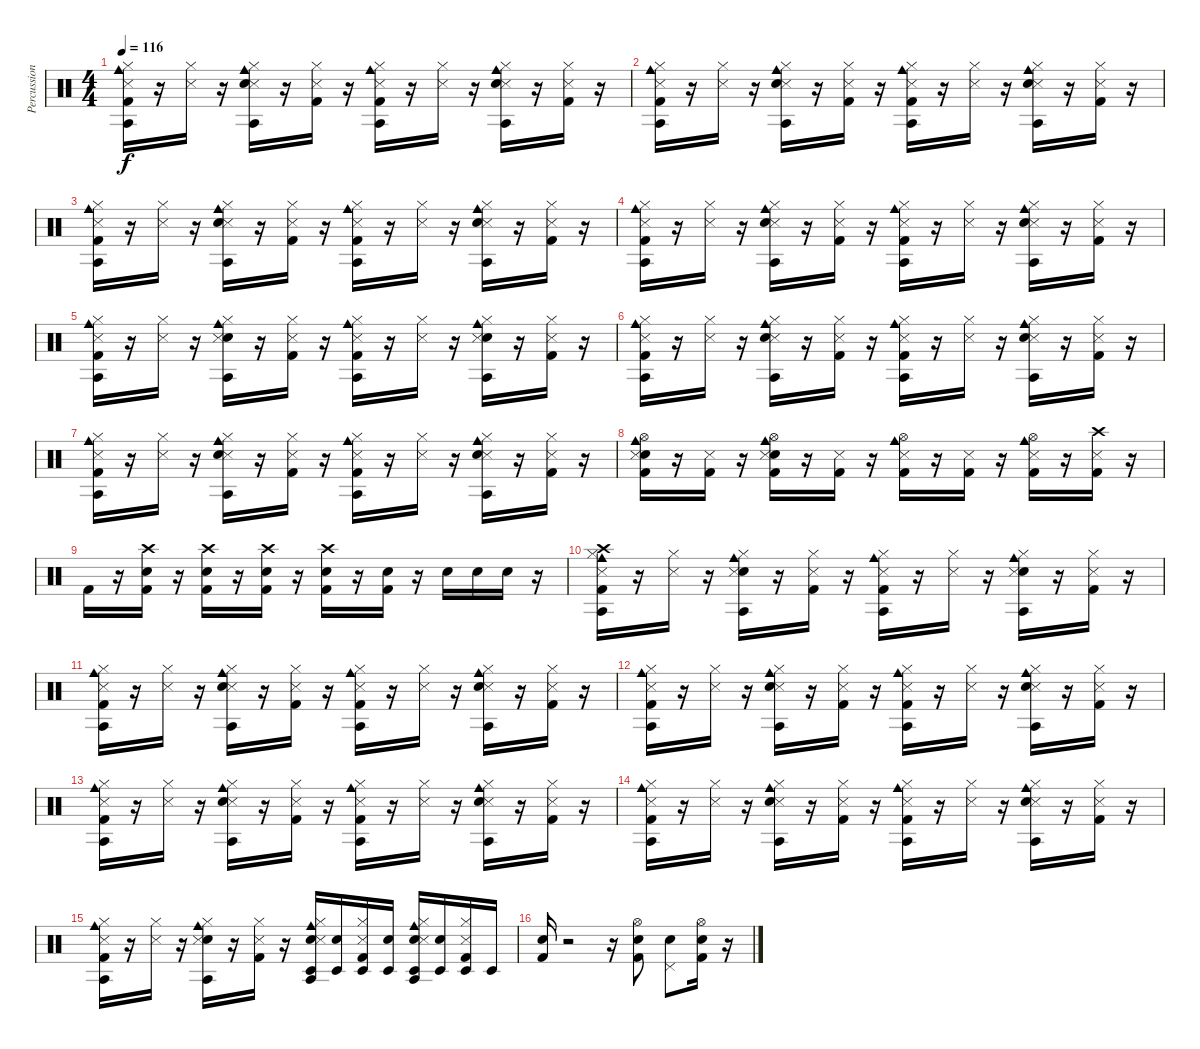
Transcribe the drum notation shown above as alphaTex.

\track ("Percussion" "Percussion") {instrument percussion}
\staff {score}
\articulation defaults
\ts (4 4)
\tempo 116
\clef neutral
\ks c
("Cowbell medium (hit)" "Snare (side stick) 3" "Hi-Hat (closed)" "Agogo tow (hit)" "Kick (hit) 2").16{dy f} r.16 ("Snare (side stick) 3" "Hi-Hat (closed)").16 r.16 ("Cowbell medium (hit)" "Snare (side stick) 3" "Hi-Hat (closed)" "Agogo tow (hit)" "Snare (hit) 2").16 r.16 ("Snare (side stick) 3" "Hi-Hat (closed)" "Kick (hit) 2").16 r.16 ("Cowbell medium (hit)" "Snare (side stick) 3" "Hi-Hat (closed)" "Agogo tow (hit)" "Kick (hit) 2").16 r.16 ("Snare (side stick) 3" "Hi-Hat (closed)").16 r.16 ("Cowbell medium (hit)" "Snare (side stick) 3" "Hi-Hat (closed)" "Agogo tow (hit)" "Snare (hit) 2").16 r.16 ("Snare (side stick) 3" "Hi-Hat (closed)" "Kick (hit) 2").16 r.16 |
("Snare (side stick) 3" "Agogo tow (hit)" "Kick (hit) 2" "Cowbell medium (hit)" "Hi-Hat (closed)").16 r.16 ("Snare (side stick) 3" "Hi-Hat (closed)").16 r.16 ("Snare (side stick) 3" "Agogo tow (hit)" "Snare (hit) 2" "Cowbell medium (hit)" "Hi-Hat (closed)").16 r.16 ("Snare (side stick) 3" "Kick (hit) 2" "Hi-Hat (closed)").16 r.16 ("Snare (side stick) 3" "Agogo tow (hit)" "Kick (hit) 2" "Cowbell medium (hit)" "Hi-Hat (closed)").16 r.16 ("Snare (side stick) 3" "Hi-Hat (closed)").16 r.16 ("Snare (side stick) 3" "Agogo tow (hit)" "Snare (hit) 2" "Cowbell medium (hit)" "Hi-Hat (closed)").16 r.16 ("Snare (side stick) 3" "Kick (hit) 2" "Hi-Hat (closed)").16 r.16 |
("Cowbell medium (hit)" "Agogo tow (hit)" "Snare (side stick) 3" "Kick (hit) 2" "Hi-Hat (closed)").16 r.16 ("Snare (side stick) 3" "Hi-Hat (closed)").16 r.16 ("Cowbell medium (hit)" "Agogo tow (hit)" "Snare (side stick) 3" "Snare (hit) 2" "Hi-Hat (closed)").16 r.16 ("Snare (side stick) 3" "Kick (hit) 2" "Hi-Hat (closed)").16 r.16 ("Cowbell medium (hit)" "Agogo tow (hit)" "Snare (side stick) 3" "Kick (hit) 2" "Hi-Hat (closed)").16 r.16 ("Snare (side stick) 3" "Hi-Hat (closed)").16 r.16 ("Cowbell medium (hit)" "Agogo tow (hit)" "Snare (side stick) 3" "Snare (hit) 2" "Hi-Hat (closed)").16 r.16 ("Snare (side stick) 3" "Kick (hit) 2" "Hi-Hat (closed)").16 r.16 |
("Hi-Hat (closed)" "Cowbell medium (hit)" "Snare (side stick) 3" "Agogo tow (hit)" "Kick (hit) 2").16 r.16 ("Hi-Hat (closed)" "Snare (side stick) 3").16 r.16 ("Hi-Hat (closed)" "Cowbell medium (hit)" "Snare (side stick) 3" "Agogo tow (hit)" "Snare (hit) 2").16 r.16 ("Hi-Hat (closed)" "Snare (side stick) 3" "Kick (hit) 2").16 r.16 ("Hi-Hat (closed)" "Cowbell medium (hit)" "Snare (side stick) 3" "Agogo tow (hit)" "Kick (hit) 2").16 r.16 ("Hi-Hat (closed)" "Snare (side stick) 3").16 r.16 ("Hi-Hat (closed)" "Cowbell medium (hit)" "Snare (side stick) 3" "Agogo tow (hit)" "Snare (hit) 2").16 r.16 ("Hi-Hat (closed)" "Snare (side stick) 3" "Kick (hit) 2").16 r.16 |
("Kick (hit) 2" "Agogo tow (hit)" "Cowbell medium (hit)" "Snare (side stick) 3" "Hi-Hat (closed)").16 r.16 ("Snare (side stick) 3" "Hi-Hat (closed)").16 r.16 ("Snare (hit) 2" "Agogo tow (hit)" "Cowbell medium (hit)" "Snare (side stick) 3" "Hi-Hat (closed)").16 r.16 ("Kick (hit) 2" "Snare (side stick) 3" "Hi-Hat (closed)").16 r.16 ("Kick (hit) 2" "Agogo tow (hit)" "Cowbell medium (hit)" "Snare (side stick) 3" "Hi-Hat (closed)").16 r.16 ("Snare (side stick) 3" "Hi-Hat (closed)").16 r.16 ("Snare (hit) 2" "Agogo tow (hit)" "Cowbell medium (hit)" "Snare (side stick) 3" "Hi-Hat (closed)").16 r.16 ("Kick (hit) 2" "Snare (side stick) 3" "Hi-Hat (closed)").16 r.16 |
("Agogo tow (hit)" "Snare (side stick) 3" "Cowbell medium (hit)" "Hi-Hat (closed)" "Kick (hit) 2").16 r.16 ("Snare (side stick) 3" "Hi-Hat (closed)").16 r.16 ("Agogo tow (hit)" "Snare (side stick) 3" "Cowbell medium (hit)" "Hi-Hat (closed)" "Snare (hit) 2").16 r.16 ("Snare (side stick) 3" "Hi-Hat (closed)" "Kick (hit) 2").16 r.16 ("Agogo tow (hit)" "Snare (side stick) 3" "Cowbell medium (hit)" "Hi-Hat (closed)" "Kick (hit) 2").16 r.16 ("Snare (side stick) 3" "Hi-Hat (closed)").16 r.16 ("Agogo tow (hit)" "Snare (side stick) 3" "Cowbell medium (hit)" "Hi-Hat (closed)" "Snare (hit) 2").16 r.16 ("Snare (side stick) 3" "Hi-Hat (closed)" "Kick (hit) 2").16 r.16 |
("Cowbell medium (hit)" "Snare (side stick) 3" "Agogo tow (hit)" "Kick (hit) 2" "Hi-Hat (closed)").16 r.16 ("Snare (side stick) 3" "Hi-Hat (closed)").16 r.16 ("Cowbell medium (hit)" "Snare (side stick) 3" "Agogo tow (hit)" "Snare (hit) 2" "Hi-Hat (closed)").16 r.16 ("Snare (side stick) 3" "Kick (hit) 2" "Hi-Hat (closed)").16 r.16 ("Cowbell medium (hit)" "Snare (side stick) 3" "Agogo tow (hit)" "Kick (hit) 2" "Hi-Hat (closed)").16 r.16 ("Snare (side stick) 3" "Hi-Hat (closed)").16 r.16 ("Cowbell medium (hit)" "Snare (side stick) 3" "Agogo tow (hit)" "Snare (hit) 2" "Hi-Hat (closed)").16 r.16 ("Snare (side stick) 3" "Kick (hit) 2" "Hi-Hat (closed)").16 r.16 |
("Electric Snare (hit)" "Snare (side stick) 3" "Cowbell medium (hit)" "Hi-Hat (open)" "Kick (hit) 2").16 r.16 ("Snare (side stick) 3" "Kick (hit) 2").16 r.16 ("Electric Snare (hit)" "Snare (side stick) 3" "Cowbell medium (hit)" "Hi-Hat (open)" "Kick (hit) 2").16 r.16 ("Snare (side stick) 3" "Kick (hit) 2").16 r.16 ("Snare (side stick) 3" "Cowbell medium (hit)" "Hi-Hat (open)" "Kick (hit) 2").16 r.16 ("Snare (side stick) 3" "Kick (hit) 2").16 r.16 ("Snare (side stick) 3" "Cowbell medium (hit)" "Hi-Hat (open)" "Kick (hit) 2").16 r.16 ("Crash high (hit)" "Snare (side stick) 3" "Kick (hit) 2").16 r.16 |
"Kick (hit) 2".16 r.16 ("Crash high (hit)" "Snare (hit) 2" "Kick (hit) 2").16 r.16 ("Snare (hit) 2" "Crash high (hit)" "Kick (hit) 2").16 r.16 ("Snare (hit) 2" "Kick (hit) 2" "Crash high (hit)").16 r.16 ("Snare (hit) 2" "Crash high (hit)" "Kick (hit) 2").16 r.16 ("Snare (hit) 2" "Kick (hit) 2").16 r.16 "Snare (hit) 2".16 "Snare (hit) 2".16 "Snare (hit) 2".16 r.16 |
("Kick (hit) 2" "Hi-Hat (closed)" "Agogo tow (hit)" "Crash high (hit)" "Cowbell medium (hit)" "Snare (side stick) 3").16 r.16 ("Hi-Hat (closed)" "Snare (side stick) 3").16 r.16 ("Snare (hit) 2" "Hi-Hat (closed)" "Agogo tow (hit)" "Cowbell medium (hit)" "Snare (side stick) 3").16 r.16 ("Kick (hit) 2" "Hi-Hat (closed)" "Snare (side stick) 3").16 r.16 ("Kick (hit) 2" "Hi-Hat (closed)" "Agogo tow (hit)" "Cowbell medium (hit)" "Snare (side stick) 3").16 r.16 ("Hi-Hat (closed)" "Snare (side stick) 3").16 r.16 ("Snare (hit) 2" "Hi-Hat (closed)" "Agogo tow (hit)" "Cowbell medium (hit)" "Snare (side stick) 3").16 r.16 ("Kick (hit) 2" "Hi-Hat (closed)" "Snare (side stick) 3").16 r.16 |
("Cowbell medium (hit)" "Snare (side stick) 3" "Hi-Hat (closed)" "Agogo tow (hit)" "Kick (hit) 2").16 r.16 ("Snare (side stick) 3" "Hi-Hat (closed)").16 r.16 ("Cowbell medium (hit)" "Snare (side stick) 3" "Hi-Hat (closed)" "Agogo tow (hit)" "Snare (hit) 2").16 r.16 ("Snare (side stick) 3" "Hi-Hat (closed)" "Kick (hit) 2").16 r.16 ("Cowbell medium (hit)" "Snare (side stick) 3" "Hi-Hat (closed)" "Agogo tow (hit)" "Kick (hit) 2").16 r.16 ("Snare (side stick) 3" "Hi-Hat (closed)").16 r.16 ("Cowbell medium (hit)" "Snare (side stick) 3" "Hi-Hat (closed)" "Agogo tow (hit)" "Snare (hit) 2").16 r.16 ("Snare (side stick) 3" "Hi-Hat (closed)" "Kick (hit) 2").16 r.16 |
("Snare (side stick) 3" "Agogo tow (hit)" "Kick (hit) 2" "Cowbell medium (hit)" "Hi-Hat (closed)").16 r.16 ("Snare (side stick) 3" "Hi-Hat (closed)").16 r.16 ("Snare (side stick) 3" "Agogo tow (hit)" "Snare (hit) 2" "Cowbell medium (hit)" "Hi-Hat (closed)").16 r.16 ("Snare (side stick) 3" "Kick (hit) 2" "Hi-Hat (closed)").16 r.16 ("Snare (side stick) 3" "Agogo tow (hit)" "Kick (hit) 2" "Cowbell medium (hit)" "Hi-Hat (closed)").16 r.16 ("Snare (side stick) 3" "Hi-Hat (closed)").16 r.16 ("Snare (side stick) 3" "Agogo tow (hit)" "Snare (hit) 2" "Cowbell medium (hit)" "Hi-Hat (closed)").16 r.16 ("Snare (side stick) 3" "Kick (hit) 2" "Hi-Hat (closed)").16 r.16 |
("Cowbell medium (hit)" "Agogo tow (hit)" "Snare (side stick) 3" "Kick (hit) 2" "Hi-Hat (closed)").16 r.16 ("Snare (side stick) 3" "Hi-Hat (closed)").16 r.16 ("Cowbell medium (hit)" "Agogo tow (hit)" "Snare (side stick) 3" "Snare (hit) 2" "Hi-Hat (closed)").16 r.16 ("Snare (side stick) 3" "Kick (hit) 2" "Hi-Hat (closed)").16 r.16 ("Cowbell medium (hit)" "Agogo tow (hit)" "Snare (side stick) 3" "Kick (hit) 2" "Hi-Hat (closed)").16 r.16 ("Snare (side stick) 3" "Hi-Hat (closed)").16 r.16 ("Cowbell medium (hit)" "Agogo tow (hit)" "Snare (side stick) 3" "Snare (hit) 2" "Hi-Hat (closed)").16 r.16 ("Snare (side stick) 3" "Kick (hit) 2" "Hi-Hat (closed)").16 r.16 |
("Hi-Hat (closed)" "Cowbell medium (hit)" "Snare (side stick) 3" "Agogo tow (hit)" "Kick (hit) 2").16 r.16 ("Hi-Hat (closed)" "Snare (side stick) 3").16 r.16 ("Hi-Hat (closed)" "Cowbell medium (hit)" "Snare (side stick) 3" "Agogo tow (hit)" "Snare (hit) 2").16 r.16 ("Hi-Hat (closed)" "Snare (side stick) 3" "Kick (hit) 2").16 r.16 ("Hi-Hat (closed)" "Cowbell medium (hit)" "Snare (side stick) 3" "Agogo tow (hit)" "Kick (hit) 2").16 r.16 ("Hi-Hat (closed)" "Snare (side stick) 3").16 r.16 ("Hi-Hat (closed)" "Cowbell medium (hit)" "Snare (side stick) 3" "Agogo tow (hit)" "Snare (hit) 2").16 r.16 ("Hi-Hat (closed)" "Snare (side stick) 3" "Kick (hit) 2").16 r.16 |
("Kick (hit) 2" "Agogo tow (hit)" "Cowbell medium (hit)" "Snare (side stick) 3" "Hi-Hat (closed)").16 r.16 ("Snare (side stick) 3" "Hi-Hat (closed)").16 r.16 ("Snare (hit) 2" "Agogo tow (hit)" "Cowbell medium (hit)" "Snare (side stick) 3" "Hi-Hat (closed)").16 r.16 ("Kick (hit) 2" "Snare (side stick) 3" "Hi-Hat (closed)").16 r.16 ("Snare (hit) 2" "Timbale low (hit)" "Agogo tow (hit)" "Cowbell medium (hit)" "Snare (side stick) 3" "Hi-Hat (closed)").16 ("Snare (hit)" "Timbale low (hit)").16 ("Timbale low (hit)" "Snare (side stick) 3" "Hi-Hat (closed)" "Kick (hit) 2").16 ("Snare (hit)" "Timbale low (hit)").16 ("Snare (hit) 2" "Agogo tow (hit)" "Cowbell medium (hit)" "Snare (side stick) 3" "Hi-Hat (closed)" "Timbale low (hit)").16 ("Snare (hit)" "Timbale low (hit)").16 ("Timbale low (hit)" "Kick (hit) 2" "Snare (side stick) 3" "Hi-Hat (closed)").16 "Timbale low (hit)".16 |
("Kick (hit) 2" "Snare (hit) 2").16 r.2 r.16 ("Snare (hit) 2" "Kick (hit) 2" "Hi-Hat (open)").8 ("Snare (hit)" "Pedal Hi-Hat (hit)").8 ("Kick (hit) 2" "Snare (hit) 2" "Hi-Hat (open)").16 r.16
